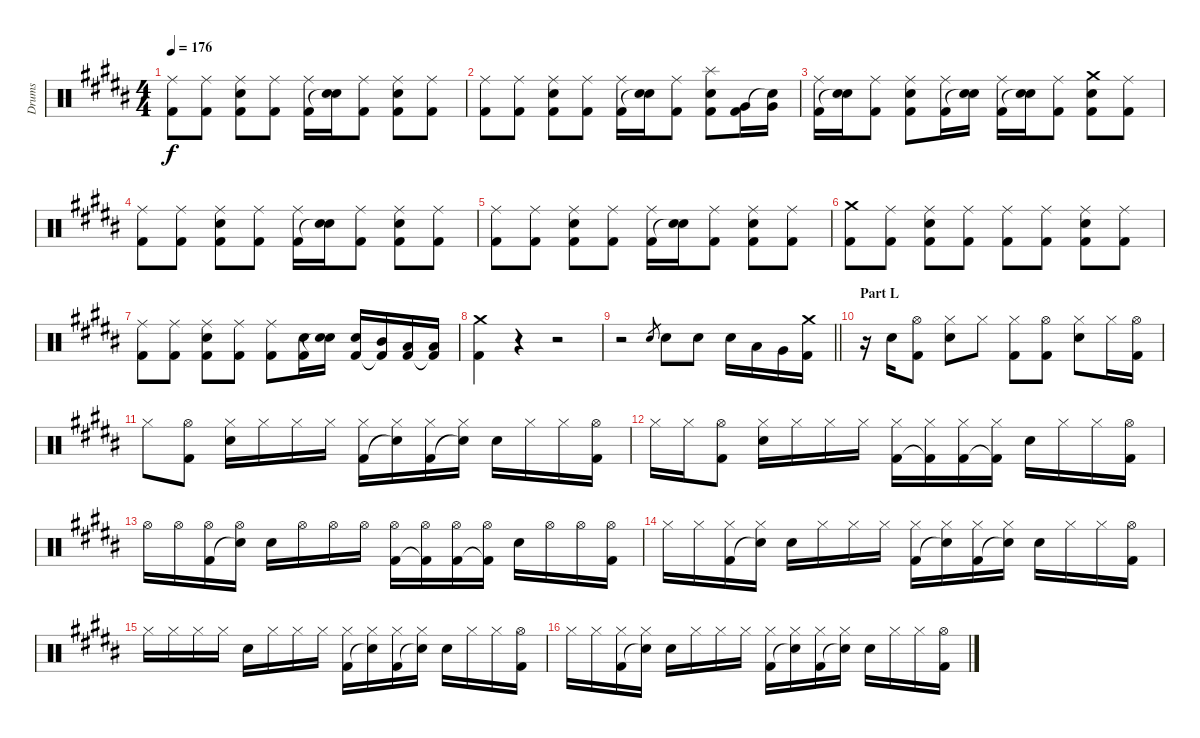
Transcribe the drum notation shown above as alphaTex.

\track ("Drums" "Drums") {instrument percussion}
\staff {score}
\articulation defaults
\ts (4 4)
\tempo 176
\clef neutral
\ks b
("Ride (middle)" "Kick (hit) 2").8{dy f} ("Ride (middle)" "Kick (hit) 2").8 ("Ride (middle)" "Electric Snare (hit)" "Kick (hit) 2").8 ("Ride (middle)" "Kick (hit) 2").8 ("Ride (middle)" "Kick (hit) 2").16 ("Electric Snare (hit)" "Snare (hit)"{t}).16 ("Ride (middle)" "Kick (hit) 2").8 ("Ride (middle)" "Electric Snare (hit)" "Kick (hit) 2").8 ("Ride (middle)" "Kick (hit) 2").8 |
("Ride (middle)" "Kick (hit) 2").8 ("Ride (middle)" "Kick (hit) 2").8 ("Ride (middle)" "Electric Snare (hit)" "Kick (hit) 2").8 ("Ride (middle)" "Kick (hit) 2").8 ("Ride (middle)" "Kick (hit) 2").16 ("Electric Snare (hit)" "Snare (hit)"{t}).16 ("Ride (middle)" "Kick (hit) 2").8 ("Splash (hit)" "Electric Snare (hit)" "Kick (hit) 2").8 ("Very Low Tom (hit)" "Kick (hit) 2").16 ("Very Low Tom (hit)" "Snare (hit)"{t}).16 |
("Ride (middle)" "Kick (hit) 2").16 ("Electric Snare (hit)" "Snare (hit)"{t}).16 ("Ride (middle)" "Kick (hit) 2").8 ("Ride (middle)" "Electric Snare (hit)" "Kick (hit) 2").8 ("Ride (middle)" "Kick (hit) 2").16 ("Electric Snare (hit)" "Snare (hit)"{t}).16 ("Ride (middle)" "Kick (hit) 2").16 ("Electric Snare (hit)" "Snare (hit)"{t}).16 ("Ride (middle)" "Kick (hit) 2").8 ("Crash medium (hit)" "Electric Snare (hit)" "Kick (hit) 2").8 ("Ride (middle)" "Kick (hit) 2").8 |
("Ride (middle)" "Kick (hit) 2").8 ("Ride (middle)" "Kick (hit) 2").8 ("Ride (middle)" "Electric Snare (hit)" "Kick (hit) 2").8 ("Ride (middle)" "Kick (hit) 2").8 ("Ride (middle)" "Kick (hit) 2").16 ("Electric Snare (hit)" "Snare (hit)"{t}).16 ("Ride (middle)" "Kick (hit) 2").8 ("Ride (middle)" "Electric Snare (hit)" "Kick (hit) 2").8 ("Ride (middle)" "Kick (hit) 2").8 |
("Ride (middle)" "Kick (hit) 2").8 ("Ride (middle)" "Kick (hit) 2").8 ("Ride (middle)" "Electric Snare (hit)" "Kick (hit) 2").8 ("Ride (middle)" "Kick (hit) 2").8 ("Ride (middle)" "Kick (hit) 2").16 ("Electric Snare (hit)" "Snare (hit)"{t}).16 ("Ride (middle)" "Kick (hit) 2").8 ("Ride (middle)" "Electric Snare (hit)" "Kick (hit) 2").8 ("Ride (middle)" "Kick (hit) 2").8 |
("Crash medium (hit)" "Kick (hit) 2").8 ("Ride (middle)" "Kick (hit) 2").8 ("Ride (middle)" "Electric Snare (hit)" "Kick (hit) 2").8 ("Ride (middle)" "Kick (hit) 2").8 ("Ride (middle)" "Kick (hit) 2").8 ("Ride (middle)" "Kick (hit) 2").8 ("Ride (middle)" "Electric Snare (hit)" "Kick (hit) 2").8 ("Ride (middle)" "Kick (hit) 2").8 |
("Ride (middle)" "Kick (hit) 2").8 ("Ride (middle)" "Kick (hit) 2").8 ("Ride (middle)" "Electric Snare (hit)" "Kick (hit) 2").8 ("Ride (middle)" "Kick (hit) 2").8 ("Ride (middle)" "Kick (hit) 2").8 ("Electric Snare (hit)" "Kick (hit) 2").16 ("Electric Snare (hit)" "Snare (hit)"{t}).16 ("Electric Snare (hit)" "Kick (hit) 2").16 ("Mid Tom (hit)" "Kick (hit) 2"{t}).16 ("Low Tom (hit)" "Kick (hit) 2").16 ("Low Tom (hit)" "Kick (hit) 2"{t}).16 |
("Crash medium (hit)" "Kick (hit) 2").4 r.4 r.2 |
\barLineRight lightlight
r.2 "Electric Snare (hit)".8{gr} "Electric Snare (hit)".8 "Electric Snare (hit)".8 "Electric Snare (hit)".16 "Low Tom (hit)".16 "Very Low Tom (hit)".16 ("Crash medium (hit)" "Kick (hit) 2").16 |
\section ("" "Part L")
r.16 "Electric Snare (hit)".16 ("Hi-Hat (open)" "Kick (hit) 2").8 ("Hi-Hat (closed)" "Electric Snare (hit)").8 "Hi-Hat (closed)".8 ("Hi-Hat (closed)" "Kick (hit) 2").8 ("Hi-Hat (open)" "Kick (hit) 2").8 ("Hi-Hat (closed)" "Electric Snare (hit)").8 "Hi-Hat (closed)".16 ("Hi-Hat (open)" "Kick (hit) 2").16 |
"Hi-Hat (closed)".8 ("Hi-Hat (open)" "Kick (hit) 2").8 ("Hi-Hat (closed)" "Electric Snare (hit)").16 "Hi-Hat (closed)".16 "Hi-Hat (closed)".16 "Hi-Hat (closed)".16 ("Hi-Hat (closed)" "Kick (hit) 2").16 ("Hi-Hat (closed)" "Snare (hit)"{t}).16 ("Hi-Hat (closed)" "Kick (hit) 2").16 ("Hi-Hat (closed)" "Snare (hit)"{t}).16 "Electric Snare (hit)".16 "Hi-Hat (closed)".16 "Hi-Hat (closed)".16 ("Hi-Hat (open)" "Kick (hit) 2").16 |
"Hi-Hat (closed)".16 "Hi-Hat (closed)".16 ("Hi-Hat (open)" "Kick (hit) 2").8 ("Hi-Hat (closed)" "Electric Snare (hit)").16 "Hi-Hat (closed)".16 "Hi-Hat (closed)".16 "Hi-Hat (closed)".16 ("Hi-Hat (closed)" "Kick (hit) 2").16 ("Hi-Hat (closed)" "Kick (hit) 2"{t}).16 ("Hi-Hat (closed)" "Kick (hit) 2").16 ("Hi-Hat (closed)" "Kick (hit) 2"{t}).16 "Electric Snare (hit)".16 "Hi-Hat (closed)".16 "Hi-Hat (closed)".16 ("Hi-Hat (open)" "Kick (hit) 2").16 |
"Hi-Hat (open)".16 "Hi-Hat (open)".16 ("Hi-Hat (open)" "Kick (hit) 2").16 ("Hi-Hat (open)" "Snare (hit)"{t}).16 "Electric Snare (hit)".16 "Hi-Hat (open)".16 "Hi-Hat (open)".16 "Hi-Hat (open)".16 ("Hi-Hat (open)" "Kick (hit) 2").16 ("Hi-Hat (open)" "Kick (hit) 2"{t}).16 ("Hi-Hat (open)" "Kick (hit) 2").16 ("Hi-Hat (open)" "Kick (hit) 2"{t}).16 "Electric Snare (hit)".16 "Hi-Hat (open)".16 "Hi-Hat (open)".16 ("Hi-Hat (open)" "Kick (hit) 2").16 |
"Hi-Hat (closed)".16 "Hi-Hat (closed)".16 ("Hi-Hat (closed)" "Kick (hit) 2").16 ("Hi-Hat (closed)" "Snare (hit)"{t}).16 "Electric Snare (hit)".16 "Hi-Hat (closed)".16 "Hi-Hat (closed)".16 "Hi-Hat (closed)".16 ("Hi-Hat (closed)" "Kick (hit) 2").16 ("Hi-Hat (closed)" "Snare (hit)"{t}).16 ("Hi-Hat (closed)" "Kick (hit) 2").16 ("Hi-Hat (closed)" "Snare (hit)"{t}).16 "Electric Snare (hit)".16 "Hi-Hat (closed)".16 "Hi-Hat (closed)".16 ("Hi-Hat (open)" "Kick (hit) 2").16 |
"Hi-Hat (closed)".16 "Hi-Hat (closed)".16 "Hi-Hat (closed)".16 "Hi-Hat (closed)".16 "Electric Snare (hit)".16 "Hi-Hat (closed)".16 "Hi-Hat (closed)".16 "Hi-Hat (closed)".16 ("Hi-Hat (closed)" "Kick (hit) 2").16 ("Hi-Hat (closed)" "Snare (hit)"{t}).16 ("Hi-Hat (closed)" "Kick (hit) 2").16 ("Hi-Hat (closed)" "Snare (hit)"{t}).16 "Electric Snare (hit)".16 "Hi-Hat (closed)".16 "Hi-Hat (closed)".16 ("Hi-Hat (open)" "Kick (hit) 2").16 |
"Hi-Hat (closed)".16 "Hi-Hat (closed)".16 ("Hi-Hat (closed)" "Kick (hit) 2").16 ("Hi-Hat (closed)" "Snare (hit)"{t}).16 "Electric Snare (hit)".16 "Hi-Hat (closed)".16 "Hi-Hat (closed)".16 "Hi-Hat (closed)".16 ("Hi-Hat (closed)" "Kick (hit) 2").16 ("Hi-Hat (closed)" "Snare (hit)"{t}).16 ("Hi-Hat (closed)" "Kick (hit) 2").16 ("Hi-Hat (closed)" "Snare (hit)"{t}).16 "Electric Snare (hit)".16 "Hi-Hat (closed)".16 "Hi-Hat (closed)".16 ("Hi-Hat (open)" "Kick (hit) 2").16
